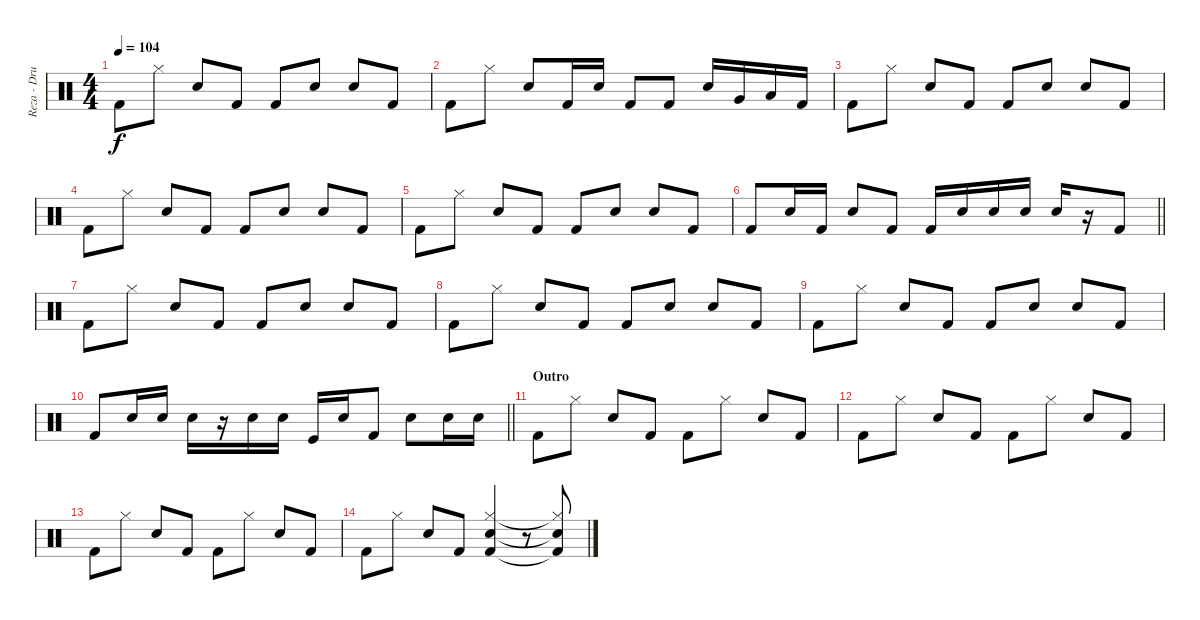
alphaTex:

\track ("Reza - Drums" "Reza - Dru") {instrument percussion}
\staff {score}
\articulation defaults
\ts (4 4)
\tempo 104
\clef neutral
\ks c "Kick (hit) 2".8{dy f} "Hi-Hat (closed)".8 "Snare (hit) 2".8 "Kick (hit) 2".8 "Kick (hit) 2".8 "Snare (hit) 2".8 "Snare (hit) 2".8 "Kick (hit) 2".8
|
"Kick (hit) 2".8 "Hi-Hat (closed)".8 "Snare (hit) 2".8 "Kick (hit) 2".16 "Snare (hit) 2".16 "Kick (hit) 2".8 "Kick (hit) 2".8 "Snare (hit) 2".16 "Very Low Tom (hit)".16 "Low Floor Tom (hit)".16 "Kick (hit) 2".16 |
"Kick (hit) 2".8 "Hi-Hat (closed)".8 "Snare (hit) 2".8 "Kick (hit) 2".8 "Kick (hit) 2".8 "Snare (hit) 2".8 "Snare (hit) 2".8 "Kick (hit) 2".8 |
"Kick (hit) 2".8 "Hi-Hat (closed)".8 "Snare (hit) 2".8 "Kick (hit) 2".8 "Kick (hit) 2".8 "Snare (hit) 2".8 "Snare (hit) 2".8 "Kick (hit) 2".8 |
"Kick (hit) 2".8 "Hi-Hat (closed)".8 "Snare (hit) 2".8 "Kick (hit) 2".8 "Kick (hit) 2".8 "Snare (hit) 2".8 "Snare (hit) 2".8 "Kick (hit) 2".8 |
\barLineRight lightlight "Kick (hit) 2".8 "Snare (hit) 2".16 "Kick (hit) 2".16 "Snare (hit) 2".8 "Kick (hit) 2".8 "Kick (hit) 2".16 "Snare (hit) 2".16 "Snare (hit) 2".16 "Snare (hit) 2".16 "Snare (hit) 2".16
r.16 "Kick (hit) 2".8 |
"Kick (hit) 2".8 "Hi-Hat (closed)".8 "Snare (hit) 2".8 "Kick (hit) 2".8 "Kick (hit) 2".8 "Snare (hit) 2".8 "Snare (hit) 2".8 "Kick (hit) 2".8 |
"Kick (hit) 2".8 "Hi-Hat (closed)".8 "Snare (hit) 2".8 "Kick (hit) 2".8 "Kick (hit) 2".8 "Snare (hit) 2".8 "Snare (hit) 2".8 "Kick (hit) 2".8 |
"Kick (hit) 2".8 "Hi-Hat (closed)".8 "Snare (hit) 2".8 "Kick (hit) 2".8 "Kick (hit) 2".8 "Snare (hit) 2".8 "Snare (hit) 2".8 "Kick (hit) 2".8 |
\barLineRight lightlight "Kick (hit) 2".8 "Snare (hit) 2".16 "Snare (hit) 2".16 "Snare (hit) 2".16
r.16 "Snare (hit) 2".16 "Snare (hit) 2".16 "Kick (hit)".16 "Snare (hit) 2".16 "Kick (hit) 2".8 "Snare (hit) 2".8 "Snare (hit) 2".16 "Snare (hit) 2".16 |
\section ("" "Outro")
"Kick (hit) 2".8 "Hi-Hat (closed)".8 "Snare (hit) 2".8 "Kick (hit) 2".8 "Kick (hit) 2".8 "Hi-Hat (closed)".8 "Snare (hit) 2".8 "Kick (hit) 2".8 |
"Kick (hit) 2".8 "Hi-Hat (closed)".8 "Snare (hit) 2".8 "Kick (hit) 2".8 "Kick (hit) 2".8 "Hi-Hat (closed)".8 "Snare (hit) 2".8 "Kick (hit) 2".8 |
"Kick (hit) 2".8 "Hi-Hat (closed)".8 "Snare (hit) 2".8 "Kick (hit) 2".8 "Kick (hit) 2".8 "Hi-Hat (closed)".8 "Snare (hit) 2".8 "Kick (hit) 2".8 |
"Kick (hit) 2".8 "Hi-Hat (closed)".8 "Snare (hit) 2".8 "Kick (hit) 2".8 ("Snare (hit) 2" "Kick (hit) 2" "Hi-Hat (closed)").4 r.8 ("Snare (hit) 2"{t} "Kick (hit) 2"{t} "Hi-Hat (closed)"{t}).8
